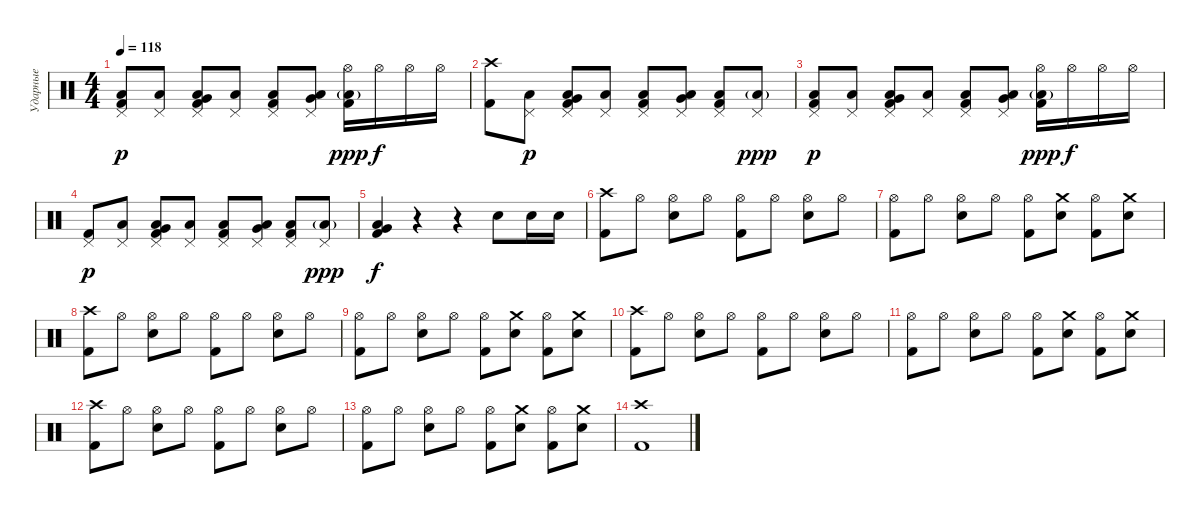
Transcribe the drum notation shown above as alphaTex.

\track ("Ударные" "Ударные") {instrument percussion}
\staff {score}
\articulation defaults
\ts (4 4)
\tempo 118
\clef neutral
\ks c
("Pedal Hi-Hat (hit)" "Low Floor Tom (hit)" "Kick (hit) 2").8{dy p} ("Pedal Hi-Hat (hit)" "Low Floor Tom (hit)").8 ("Pedal Hi-Hat (hit)" "Very Low Tom (hit)" "Low Floor Tom (hit)" "Kick (hit) 2").8 ("Pedal Hi-Hat (hit)" "Low Floor Tom (hit)").8 ("Pedal Hi-Hat (hit)" "Low Floor Tom (hit)" "Kick (hit) 2").8 ("Pedal Hi-Hat (hit)" "Very Low Tom (hit)" "Low Floor Tom (hit)").8 ("Hi-Hat (open)" "Low Floor Tom (hit)"{g} "Kick (hit) 2").16{dy ppp} "Hi-Hat (open)".16{dy f} "Hi-Hat (open)".16 "Hi-Hat (open)".16 |
("Crash high (hit)" "Kick (hit) 2").8 ("Pedal Hi-Hat (hit)" "Low Floor Tom (hit)").8{dy p} ("Pedal Hi-Hat (hit)" "Very Low Tom (hit)" "Low Floor Tom (hit)" "Kick (hit) 2").8 ("Pedal Hi-Hat (hit)" "Low Floor Tom (hit)").8 ("Pedal Hi-Hat (hit)" "Low Floor Tom (hit)" "Kick (hit) 2").8 ("Pedal Hi-Hat (hit)" "Very Low Tom (hit)" "Low Floor Tom (hit)").8 ("Pedal Hi-Hat (hit)" "Low Floor Tom (hit)" "Kick (hit) 2").8 ("Pedal Hi-Hat (hit)" "Low Floor Tom (hit)"{g}).8{dy ppp} |
("Pedal Hi-Hat (hit)" "Low Floor Tom (hit)" "Kick (hit) 2").8{dy p} ("Pedal Hi-Hat (hit)" "Low Floor Tom (hit)").8 ("Pedal Hi-Hat (hit)" "Very Low Tom (hit)" "Low Floor Tom (hit)" "Kick (hit) 2").8 ("Pedal Hi-Hat (hit)" "Low Floor Tom (hit)").8 ("Pedal Hi-Hat (hit)" "Low Floor Tom (hit)" "Kick (hit) 2").8 ("Pedal Hi-Hat (hit)" "Very Low Tom (hit)" "Low Floor Tom (hit)").8 ("Hi-Hat (open)" "Low Floor Tom (hit)"{g} "Kick (hit) 2").16{dy ppp} "Hi-Hat (open)".16{dy f} "Hi-Hat (open)".16 "Hi-Hat (open)".16 |
("Pedal Hi-Hat (hit)" "Kick (hit) 2").8{dy p} ("Pedal Hi-Hat (hit)" "Low Floor Tom (hit)").8 ("Pedal Hi-Hat (hit)" "Very Low Tom (hit)" "Low Floor Tom (hit)" "Kick (hit) 2").8 ("Pedal Hi-Hat (hit)" "Low Floor Tom (hit)").8 ("Pedal Hi-Hat (hit)" "Low Floor Tom (hit)" "Kick (hit) 2").8 ("Pedal Hi-Hat (hit)" "Very Low Tom (hit)" "Low Floor Tom (hit)").8 ("Pedal Hi-Hat (hit)" "Low Floor Tom (hit)" "Kick (hit) 2").8 ("Pedal Hi-Hat (hit)" "Low Floor Tom (hit)"{g}).8{dy ppp} |
("Very Low Tom (hit)" "Low Floor Tom (hit)" "Kick (hit) 2").4{dy f} r.4 r.4 "Snare (hit) 2".8 "Snare (hit) 2".16 "Snare (hit) 2".16 |
("Crash high (hit)" "Kick (hit) 2").8 "Hi-Hat (open)".8 ("Hi-Hat (open)" "Snare (hit) 2").8 "Hi-Hat (open)".8 ("Hi-Hat (open)" "Kick (hit) 2").8 "Hi-Hat (open)".8 ("Hi-Hat (open)" "Snare (hit) 2").8 "Hi-Hat (open)".8 |
("Hi-Hat (open)" "Kick (hit) 2").8 "Hi-Hat (open)".8 ("Hi-Hat (open)" "Snare (hit) 2").8 "Hi-Hat (open)".8 ("Hi-Hat (open)" "Kick (hit) 2").8 ("Crash medium (hit)" "Snare (hit) 2").8 ("Hi-Hat (open)" "Kick (hit) 2").8 ("Crash medium (hit)" "Snare (hit) 2").8 |
("Crash high (hit)" "Kick (hit) 2").8 "Hi-Hat (open)".8 ("Hi-Hat (open)" "Snare (hit) 2").8 "Hi-Hat (open)".8 ("Hi-Hat (open)" "Kick (hit) 2").8 "Hi-Hat (open)".8 ("Hi-Hat (open)" "Snare (hit) 2").8 "Hi-Hat (open)".8 |
("Hi-Hat (open)" "Kick (hit) 2").8 "Hi-Hat (open)".8 ("Hi-Hat (open)" "Snare (hit) 2").8 "Hi-Hat (open)".8 ("Hi-Hat (open)" "Kick (hit) 2").8 ("Crash medium (hit)" "Snare (hit) 2").8 ("Hi-Hat (open)" "Kick (hit) 2").8 ("Crash medium (hit)" "Snare (hit) 2").8 |
("Crash high (hit)" "Kick (hit) 2").8 "Hi-Hat (open)".8 ("Hi-Hat (open)" "Snare (hit) 2").8 "Hi-Hat (open)".8 ("Hi-Hat (open)" "Kick (hit) 2").8 "Hi-Hat (open)".8 ("Hi-Hat (open)" "Snare (hit) 2").8 "Hi-Hat (open)".8 |
("Hi-Hat (open)" "Kick (hit) 2").8 "Hi-Hat (open)".8 ("Hi-Hat (open)" "Snare (hit) 2").8 "Hi-Hat (open)".8 ("Hi-Hat (open)" "Kick (hit) 2").8 ("Crash medium (hit)" "Snare (hit) 2").8 ("Hi-Hat (open)" "Kick (hit) 2").8 ("Crash medium (hit)" "Snare (hit) 2").8 |
("Crash high (hit)" "Kick (hit) 2").8 "Hi-Hat (open)".8 ("Hi-Hat (open)" "Snare (hit) 2").8 "Hi-Hat (open)".8 ("Hi-Hat (open)" "Kick (hit) 2").8 "Hi-Hat (open)".8 ("Hi-Hat (open)" "Snare (hit) 2").8 "Hi-Hat (open)".8 |
("Hi-Hat (open)" "Kick (hit) 2").8 "Hi-Hat (open)".8 ("Hi-Hat (open)" "Snare (hit) 2").8 "Hi-Hat (open)".8 ("Hi-Hat (open)" "Kick (hit) 2").8 ("Crash medium (hit)" "Snare (hit) 2").8 ("Hi-Hat (open)" "Kick (hit) 2").8 ("Crash medium (hit)" "Snare (hit) 2").8 |
("Crash high (hit)" "Kick (hit) 2").1
